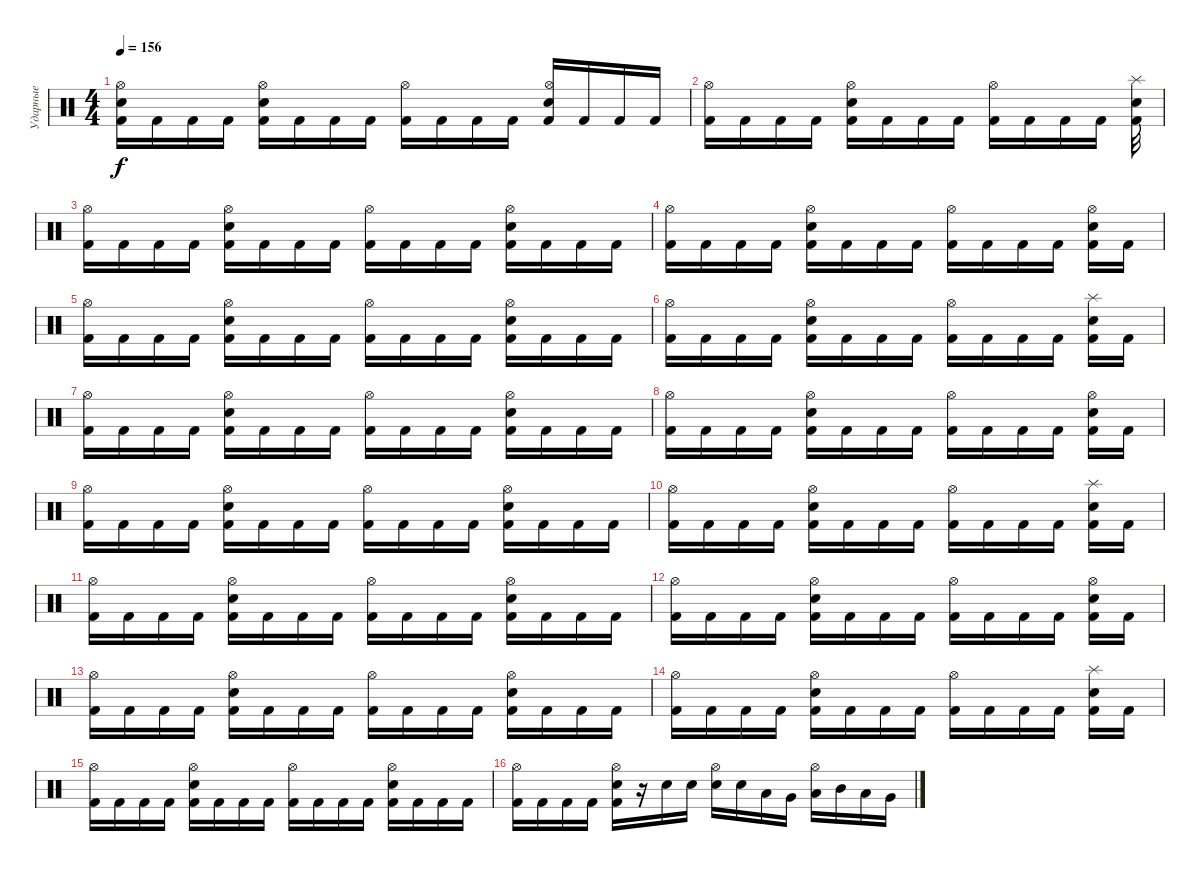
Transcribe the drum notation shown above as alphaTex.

\track ("Ударные" "Ударные") {instrument percussion}
\staff {score}
\articulation defaults
\ts (4 4)
\tempo 156
\clef neutral
\ks c
("Kick (hit) 2" "Electric Snare (hit)" "Hi-Hat (open)").16{dy f} "Kick (hit) 2".16 "Kick (hit) 2".16 "Kick (hit) 2".16 ("Kick (hit) 2" "Electric Snare (hit)" "Hi-Hat (open)").16 "Kick (hit) 2".16 "Kick (hit) 2".16 "Kick (hit) 2".16 ("Kick (hit) 2" "Hi-Hat (open)").16 "Kick (hit) 2".16 "Kick (hit) 2".16 "Kick (hit) 2".16 ("Kick (hit) 2" "Snare (hit) 2" "Hi-Hat (open)").16 "Kick (hit) 2".16 "Kick (hit) 2".16 "Kick (hit) 2".16 |
("Kick (hit) 2" "Hi-Hat (open)").16 "Kick (hit) 2".16 "Kick (hit) 2".16 "Kick (hit) 2".16 ("Kick (hit) 2" "Electric Snare (hit)" "Hi-Hat (open)").16 "Kick (hit) 2".16 "Kick (hit) 2".16 "Kick (hit) 2".16 ("Kick (hit) 2" "Hi-Hat (open)").16 "Kick (hit) 2".16 "Kick (hit) 2".16 "Kick (hit) 2".16 ("Kick (hit) 2" "Electric Snare (hit)" "Splash (hit)").32 |
("Kick (hit) 2" "Hi-Hat (open)").16 "Kick (hit) 2".16 "Kick (hit) 2".16 "Kick (hit) 2".16 ("Kick (hit) 2" "Electric Snare (hit)" "Hi-Hat (open)").16 "Kick (hit) 2".16 "Kick (hit) 2".16 "Kick (hit) 2".16 ("Kick (hit) 2" "Hi-Hat (open)").16 "Kick (hit) 2".16 "Kick (hit) 2".16 "Kick (hit) 2".16 ("Kick (hit) 2" "Electric Snare (hit)" "Hi-Hat (open)").16 "Kick (hit) 2".16 "Kick (hit) 2".16 "Kick (hit) 2".16 |
("Kick (hit) 2" "Hi-Hat (open)").16 "Kick (hit) 2".16 "Kick (hit) 2".16 "Kick (hit) 2".16 ("Kick (hit) 2" "Electric Snare (hit)" "Hi-Hat (open)").16 "Kick (hit) 2".16 "Kick (hit) 2".16 "Kick (hit) 2".16 ("Kick (hit) 2" "Hi-Hat (open)").16 "Kick (hit) 2".16 "Kick (hit) 2".16 "Kick (hit) 2".16 ("Kick (hit) 2" "Electric Snare (hit)" "Hi-Hat (open)").16 "Kick (hit) 2".16 |
("Kick (hit) 2" "Hi-Hat (open)").16 "Kick (hit) 2".16 "Kick (hit) 2".16 "Kick (hit) 2".16 ("Kick (hit) 2" "Electric Snare (hit)" "Hi-Hat (open)").16 "Kick (hit) 2".16 "Kick (hit) 2".16 "Kick (hit) 2".16 ("Kick (hit) 2" "Hi-Hat (open)").16 "Kick (hit) 2".16 "Kick (hit) 2".16 "Kick (hit) 2".16 ("Kick (hit) 2" "Electric Snare (hit)" "Hi-Hat (open)").16 "Kick (hit) 2".16 "Kick (hit) 2".16 "Kick (hit) 2".16 |
("Kick (hit) 2" "Hi-Hat (open)").16 "Kick (hit) 2".16 "Kick (hit) 2".16 "Kick (hit) 2".16 ("Kick (hit) 2" "Electric Snare (hit)" "Hi-Hat (open)").16 "Kick (hit) 2".16 "Kick (hit) 2".16 "Kick (hit) 2".16 ("Kick (hit) 2" "Hi-Hat (open)").16 "Kick (hit) 2".16 "Kick (hit) 2".16 "Kick (hit) 2".16 ("Kick (hit) 2" "Electric Snare (hit)" "Splash (hit)").16 "Kick (hit) 2".16 |
("Kick (hit) 2" "Hi-Hat (open)").16 "Kick (hit) 2".16 "Kick (hit) 2".16 "Kick (hit) 2".16 ("Kick (hit) 2" "Electric Snare (hit)" "Hi-Hat (open)").16 "Kick (hit) 2".16 "Kick (hit) 2".16 "Kick (hit) 2".16 ("Kick (hit) 2" "Hi-Hat (open)").16 "Kick (hit) 2".16 "Kick (hit) 2".16 "Kick (hit) 2".16 ("Kick (hit) 2" "Electric Snare (hit)" "Hi-Hat (open)").16 "Kick (hit) 2".16 "Kick (hit) 2".16 "Kick (hit) 2".16 |
("Kick (hit) 2" "Hi-Hat (open)").16 "Kick (hit) 2".16 "Kick (hit) 2".16 "Kick (hit) 2".16 ("Kick (hit) 2" "Electric Snare (hit)" "Hi-Hat (open)").16 "Kick (hit) 2".16 "Kick (hit) 2".16 "Kick (hit) 2".16 ("Kick (hit) 2" "Hi-Hat (open)").16 "Kick (hit) 2".16 "Kick (hit) 2".16 "Kick (hit) 2".16 ("Kick (hit) 2" "Electric Snare (hit)" "Hi-Hat (open)").16 "Kick (hit) 2".16 |
("Kick (hit) 2" "Hi-Hat (open)").16 "Kick (hit) 2".16 "Kick (hit) 2".16 "Kick (hit) 2".16 ("Kick (hit) 2" "Electric Snare (hit)" "Hi-Hat (open)").16 "Kick (hit) 2".16 "Kick (hit) 2".16 "Kick (hit) 2".16 ("Kick (hit) 2" "Hi-Hat (open)").16 "Kick (hit) 2".16 "Kick (hit) 2".16 "Kick (hit) 2".16 ("Kick (hit) 2" "Electric Snare (hit)" "Hi-Hat (open)").16 "Kick (hit) 2".16 "Kick (hit) 2".16 "Kick (hit) 2".16 |
("Kick (hit) 2" "Hi-Hat (open)").16 "Kick (hit) 2".16 "Kick (hit) 2".16 "Kick (hit) 2".16 ("Kick (hit) 2" "Electric Snare (hit)" "Hi-Hat (open)").16 "Kick (hit) 2".16 "Kick (hit) 2".16 "Kick (hit) 2".16 ("Kick (hit) 2" "Hi-Hat (open)").16 "Kick (hit) 2".16 "Kick (hit) 2".16 "Kick (hit) 2".16 ("Kick (hit) 2" "Electric Snare (hit)" "Splash (hit)").16 "Kick (hit) 2".16 |
("Kick (hit) 2" "Hi-Hat (open)").16 "Kick (hit) 2".16 "Kick (hit) 2".16 "Kick (hit) 2".16 ("Kick (hit) 2" "Electric Snare (hit)" "Hi-Hat (open)").16 "Kick (hit) 2".16 "Kick (hit) 2".16 "Kick (hit) 2".16 ("Kick (hit) 2" "Hi-Hat (open)").16 "Kick (hit) 2".16 "Kick (hit) 2".16 "Kick (hit) 2".16 ("Kick (hit) 2" "Electric Snare (hit)" "Hi-Hat (open)").16 "Kick (hit) 2".16 "Kick (hit) 2".16 "Kick (hit) 2".16 |
("Kick (hit) 2" "Hi-Hat (open)").16 "Kick (hit) 2".16 "Kick (hit) 2".16 "Kick (hit) 2".16 ("Kick (hit) 2" "Electric Snare (hit)" "Hi-Hat (open)").16 "Kick (hit) 2".16 "Kick (hit) 2".16 "Kick (hit) 2".16 ("Kick (hit) 2" "Hi-Hat (open)").16 "Kick (hit) 2".16 "Kick (hit) 2".16 "Kick (hit) 2".16 ("Kick (hit) 2" "Electric Snare (hit)" "Hi-Hat (open)").16 "Kick (hit) 2".16 |
("Kick (hit) 2" "Hi-Hat (open)").16 "Kick (hit) 2".16 "Kick (hit) 2".16 "Kick (hit) 2".16 ("Kick (hit) 2" "Electric Snare (hit)" "Hi-Hat (open)").16 "Kick (hit) 2".16 "Kick (hit) 2".16 "Kick (hit) 2".16 ("Kick (hit) 2" "Hi-Hat (open)").16 "Kick (hit) 2".16 "Kick (hit) 2".16 "Kick (hit) 2".16 ("Kick (hit) 2" "Electric Snare (hit)" "Hi-Hat (open)").16 "Kick (hit) 2".16 "Kick (hit) 2".16 "Kick (hit) 2".16 |
("Kick (hit) 2" "Hi-Hat (open)").16 "Kick (hit) 2".16 "Kick (hit) 2".16 "Kick (hit) 2".16 ("Kick (hit) 2" "Electric Snare (hit)" "Hi-Hat (open)").16 "Kick (hit) 2".16 "Kick (hit) 2".16 "Kick (hit) 2".16 ("Kick (hit) 2" "Hi-Hat (open)").16 "Kick (hit) 2".16 "Kick (hit) 2".16 "Kick (hit) 2".16 ("Kick (hit) 2" "Electric Snare (hit)" "Splash (hit)").16 "Kick (hit) 2".16 |
("Kick (hit) 2" "Hi-Hat (open)").16 "Kick (hit) 2".16 "Kick (hit) 2".16 "Kick (hit) 2".16 ("Kick (hit) 2" "Electric Snare (hit)" "Hi-Hat (open)").16 "Kick (hit) 2".16 "Kick (hit) 2".16 "Kick (hit) 2".16 ("Kick (hit) 2" "Hi-Hat (open)").16 "Kick (hit) 2".16 "Kick (hit) 2".16 "Kick (hit) 2".16 ("Kick (hit) 2" "Electric Snare (hit)" "Hi-Hat (open)").16 "Kick (hit) 2".16 "Kick (hit) 2".16 "Kick (hit) 2".16 |
("Kick (hit) 2" "Hi-Hat (open)").16 "Kick (hit) 2".16 "Kick (hit) 2".16 "Kick (hit) 2".16 ("Kick (hit) 2" "Electric Snare (hit)" "Hi-Hat (open)").16 r.16 "Snare (hit) 2".16 "Electric Snare (hit)".16 ("Snare (hit) 2" "Hi-Hat (open)").16 "Electric Snare (hit)".16 "Low Tom (hit)".16 "Very Low Tom (hit)".16 ("Low Tom (hit)" "Hi-Hat (open)").16 "Mid Tom (hit)".16 "Low Tom (hit)".16 "Very Low Tom (hit)".16
